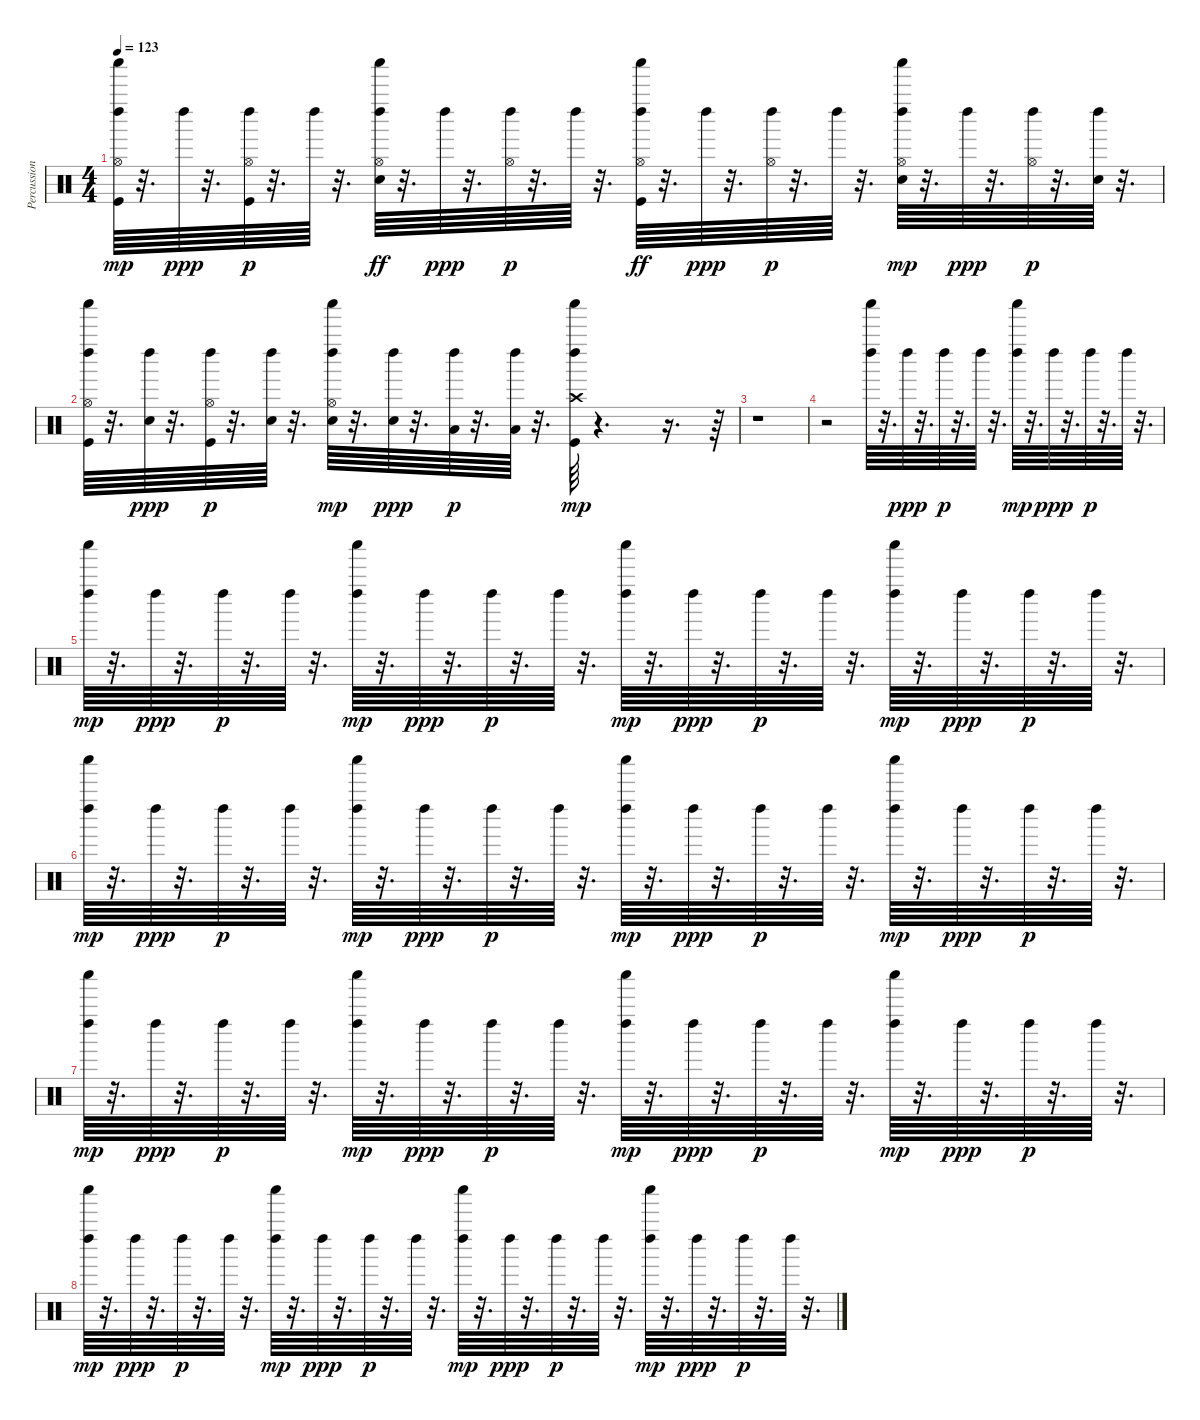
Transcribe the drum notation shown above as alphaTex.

\track ("Percussion" "Percussion") {instrument percussion}
\staff {score}
\articulation defaults
\ts (4 4)
\tempo 123
\clef neutral
\ks c
("Hi-Hat (open)" "Left Maraca (hit)" "Kick (hit)" "Shaker (hit)").64{dy mp} r.32{d} "Left Maraca (hit)".64{dy ppp} r.32{d} ("Kick (hit)" "Hi-Hat (open)" "Left Maraca (hit)").64{dy p} r.32{d} "Left Maraca (hit)".64 r.32{d} ("Shaker (hit)" "Left Maraca (hit)" "Hi-Hat (open)" "Electric Snare (hit)").64{dy ff} r.32{d} "Left Maraca (hit)".64{dy ppp} r.32{d} ("Hi-Hat (open)" "Left Maraca (hit)").64{dy p} r.32{d} "Left Maraca (hit)".64 r.32{d} ("Shaker (hit)" "Left Maraca (hit)" "Hi-Hat (open)" "Kick (hit)").64{dy ff} r.32{d} "Left Maraca (hit)".64{dy ppp} r.32{d} ("Hi-Hat (open)" "Left Maraca (hit)").64{dy p} r.32{d} "Left Maraca (hit)".64 r.32{d} ("Electric Snare (hit)" "Hi-Hat (open)" "Left Maraca (hit)" "Shaker (hit)").64{dy mp} r.32{d} "Left Maraca (hit)".64{dy ppp} r.32{d} ("Hi-Hat (open)" "Left Maraca (hit)").64{dy p} r.32{d} ("Electric Snare (hit)" "Left Maraca (hit)").64 r.32{d} |
("Left Maraca (hit)" "Shaker (hit)" "Kick (hit)" "Hi-Hat (open)").64 r.32{d} ("Electric Snare (hit)" "Left Maraca (hit)").64{dy ppp} r.32{d} ("Kick (hit)" "Hi-Hat (open)" "Left Maraca (hit)").64{dy p} r.32{d} ("Electric Snare (hit)" "Left Maraca (hit)").64 r.32{d} ("Electric Snare (hit)" "Hi-Hat (open)" "Left Maraca (hit)" "Shaker (hit)").64{dy mp} r.32{d} ("Electric Snare (hit)" "Left Maraca (hit)").64{dy ppp} r.32{d} ("Low Tom (hit)" "Left Maraca (hit)").64{dy p} r.32{d} ("Low Tom (hit)" "Left Maraca (hit)").64 r.32{d} ("Kick (hit)" "Crash high (hit)" "Left Maraca (hit)" "Shaker (hit)").64{dy mp} r.4{d} r.16{d} r.64 |
r.1 |
r.2 ("Left Maraca (hit)" "Shaker (hit)").64 r.32{d} "Left Maraca (hit)".64{dy ppp} r.32{d} "Left Maraca (hit)".64{dy p} r.32{d} "Left Maraca (hit)".64 r.32{d} ("Left Maraca (hit)" "Shaker (hit)").64{dy mp} r.32{d} "Left Maraca (hit)".64{dy ppp} r.32{d} "Left Maraca (hit)".64{dy p} r.32{d} "Left Maraca (hit)".64 r.32{d} |
("Left Maraca (hit)" "Shaker (hit)").64{dy mp} r.32{d} "Left Maraca (hit)".64{dy ppp} r.32{d} "Left Maraca (hit)".64{dy p} r.32{d} "Left Maraca (hit)".64 r.32{d} ("Left Maraca (hit)" "Shaker (hit)").64{dy mp} r.32{d} "Left Maraca (hit)".64{dy ppp} r.32{d} "Left Maraca (hit)".64{dy p} r.32{d} "Left Maraca (hit)".64 r.32{d} ("Left Maraca (hit)" "Shaker (hit)").64{dy mp} r.32{d} "Left Maraca (hit)".64{dy ppp} r.32{d} "Left Maraca (hit)".64{dy p} r.32{d} "Left Maraca (hit)".64 r.32{d} ("Left Maraca (hit)" "Shaker (hit)").64{dy mp} r.32{d} "Left Maraca (hit)".64{dy ppp} r.32{d} "Left Maraca (hit)".64{dy p} r.32{d} "Left Maraca (hit)".64 r.32{d} |
("Left Maraca (hit)" "Shaker (hit)").64{dy mp} r.32{d} "Left Maraca (hit)".64{dy ppp} r.32{d} "Left Maraca (hit)".64{dy p} r.32{d} "Left Maraca (hit)".64 r.32{d} ("Left Maraca (hit)" "Shaker (hit)").64{dy mp} r.32{d} "Left Maraca (hit)".64{dy ppp} r.32{d} "Left Maraca (hit)".64{dy p} r.32{d} "Left Maraca (hit)".64 r.32{d} ("Left Maraca (hit)" "Shaker (hit)").64{dy mp} r.32{d} "Left Maraca (hit)".64{dy ppp} r.32{d} "Left Maraca (hit)".64{dy p} r.32{d} "Left Maraca (hit)".64 r.32{d} ("Left Maraca (hit)" "Shaker (hit)").64{dy mp} r.32{d} "Left Maraca (hit)".64{dy ppp} r.32{d} "Left Maraca (hit)".64{dy p} r.32{d} "Left Maraca (hit)".64 r.32{d} |
("Left Maraca (hit)" "Shaker (hit)").64{dy mp} r.32{d} "Left Maraca (hit)".64{dy ppp} r.32{d} "Left Maraca (hit)".64{dy p} r.32{d} "Left Maraca (hit)".64 r.32{d} ("Left Maraca (hit)" "Shaker (hit)").64{dy mp} r.32{d} "Left Maraca (hit)".64{dy ppp} r.32{d} "Left Maraca (hit)".64{dy p} r.32{d} "Left Maraca (hit)".64 r.32{d} ("Left Maraca (hit)" "Shaker (hit)").64{dy mp} r.32{d} "Left Maraca (hit)".64{dy ppp} r.32{d} "Left Maraca (hit)".64{dy p} r.32{d} "Left Maraca (hit)".64 r.32{d} ("Left Maraca (hit)" "Shaker (hit)").64{dy mp} r.32{d} "Left Maraca (hit)".64{dy ppp} r.32{d} "Left Maraca (hit)".64{dy p} r.32{d} "Left Maraca (hit)".64 r.32{d} |
("Left Maraca (hit)" "Shaker (hit)").64{dy mp} r.32{d} "Left Maraca (hit)".64{dy ppp} r.32{d} "Left Maraca (hit)".64{dy p} r.32{d} "Left Maraca (hit)".64 r.32{d} ("Left Maraca (hit)" "Shaker (hit)").64{dy mp} r.32{d} "Left Maraca (hit)".64{dy ppp} r.32{d} "Left Maraca (hit)".64{dy p} r.32{d} "Left Maraca (hit)".64 r.32{d} ("Left Maraca (hit)" "Shaker (hit)").64{dy mp} r.32{d} "Left Maraca (hit)".64{dy ppp} r.32{d} "Left Maraca (hit)".64{dy p} r.32{d} "Left Maraca (hit)".64 r.32{d} ("Left Maraca (hit)" "Shaker (hit)").64{dy mp} r.32{d} "Left Maraca (hit)".64{dy ppp} r.32{d} "Left Maraca (hit)".64{dy p} r.32{d} "Left Maraca (hit)".64 r.32{d}
